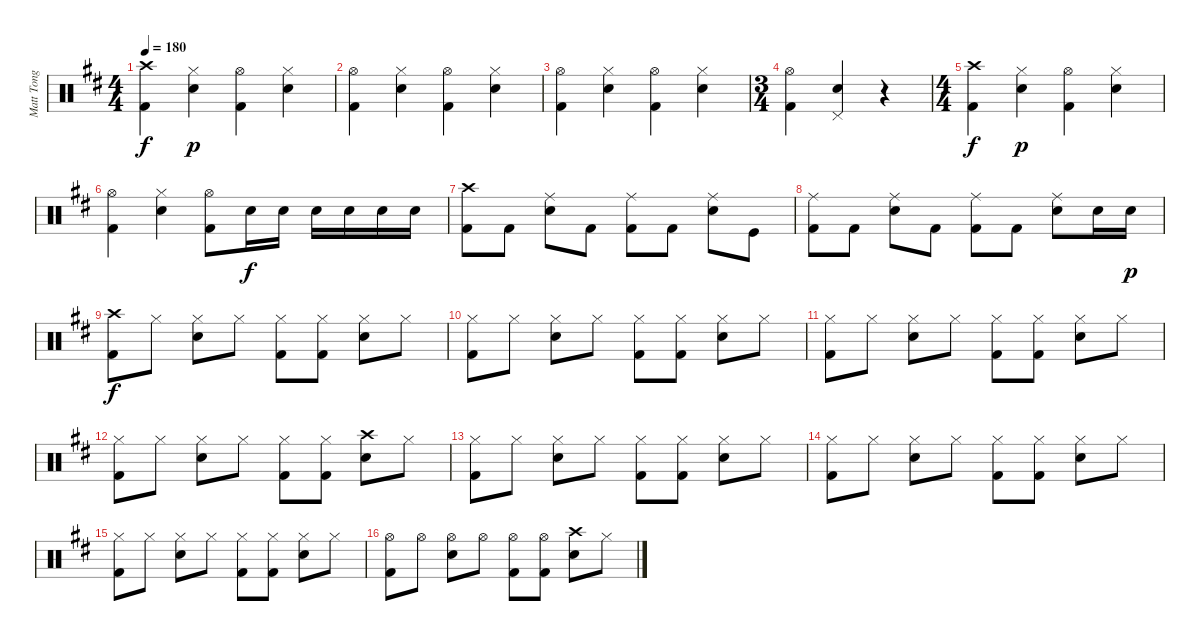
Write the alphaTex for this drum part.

\track ("Matt Tong" "Matt Tong") {instrument percussion}
\staff {score}
\articulation defaults
\ts (4 4)
\tempo 180
\clef neutral
\ks d
("Crash high (hit)" "Kick (hit) 2").4{dy f} ("Hi-Hat (closed)" "Electric Snare (hit)").4{dy p} ("Hi-Hat (open)" "Kick (hit) 2").4 ("Hi-Hat (closed)" "Electric Snare (hit)").4 |
("Hi-Hat (open)" "Kick (hit) 2").4 ("Hi-Hat (closed)" "Electric Snare (hit)").4 ("Hi-Hat (open)" "Kick (hit) 2").4 ("Hi-Hat (closed)" "Electric Snare (hit)").4 |
("Hi-Hat (open)" "Kick (hit) 2").4 ("Hi-Hat (closed)" "Electric Snare (hit)").4 ("Hi-Hat (open)" "Kick (hit) 2").4 ("Hi-Hat (closed)" "Electric Snare (hit)").4 |
\ts (3 4)
("Hi-Hat (open)" "Kick (hit) 2").4 ("Pedal Hi-Hat (hit)" "Electric Snare (hit)").4 r.4 |
\ts (4 4)
("Crash high (hit)" "Kick (hit) 2").4{dy f} ("Hi-Hat (closed)" "Electric Snare (hit)").4{dy p} ("Hi-Hat (open)" "Kick (hit) 2").4 ("Hi-Hat (closed)" "Electric Snare (hit)").4 |
("Hi-Hat (open)" "Kick (hit) 2").4 ("Hi-Hat (closed)" "Electric Snare (hit)").4 ("Hi-Hat (open)" "Kick (hit) 2").8 "Electric Snare (hit)".16{dy f} "Electric Snare (hit)".16 "Electric Snare (hit)".16 "Electric Snare (hit)".16 "Electric Snare (hit)".16 "Electric Snare (hit)".16 |
("Crash high (hit)" "Kick (hit) 2").8 "Kick (hit) 2".8 ("Ride (middle)" "Electric Snare (hit)").8 "Kick (hit) 2".8 ("Ride (middle)" "Kick (hit) 2").8 "Kick (hit) 2".8 ("Ride (middle)" "Electric Snare (hit)").8 "Kick (hit)".8 |
("Ride (middle)" "Kick (hit) 2").8 "Kick (hit) 2".8 ("Ride (middle)" "Electric Snare (hit)").8 "Kick (hit) 2".8 ("Ride (middle)" "Kick (hit) 2").8 "Kick (hit) 2".8 ("Ride (middle)" "Electric Snare (hit)").8 "Electric Snare (hit)".16 "Electric Snare (hit)".16{dy p} |
("Crash high (hit)" "Kick (hit) 2").8{dy f} "Hi-Hat (closed)".8 ("Hi-Hat (closed)" "Electric Snare (hit)").8 "Hi-Hat (closed)".8 ("Hi-Hat (closed)" "Kick (hit) 2").8 ("Hi-Hat (closed)" "Kick (hit) 2").8 ("Hi-Hat (closed)" "Electric Snare (hit)").8 "Hi-Hat (closed)".8 |
("Hi-Hat (closed)" "Kick (hit) 2").8 "Hi-Hat (closed)".8 ("Hi-Hat (closed)" "Electric Snare (hit)").8 "Hi-Hat (closed)".8 ("Hi-Hat (closed)" "Kick (hit) 2").8 ("Hi-Hat (closed)" "Kick (hit) 2").8 ("Hi-Hat (closed)" "Electric Snare (hit)").8 "Hi-Hat (closed)".8 |
("Hi-Hat (closed)" "Kick (hit) 2").8 "Hi-Hat (closed)".8 ("Hi-Hat (closed)" "Electric Snare (hit)").8 "Hi-Hat (closed)".8 ("Hi-Hat (closed)" "Kick (hit) 2").8 ("Hi-Hat (closed)" "Kick (hit) 2").8 ("Hi-Hat (closed)" "Electric Snare (hit)").8 "Hi-Hat (closed)".8 |
("Hi-Hat (closed)" "Kick (hit) 2").8 "Hi-Hat (closed)".8 ("Hi-Hat (closed)" "Electric Snare (hit)").8 "Hi-Hat (closed)".8 ("Hi-Hat (closed)" "Kick (hit) 2").8 ("Hi-Hat (closed)" "Kick (hit) 2").8 ("Crash high (hit)" "Electric Snare (hit)").8 "Hi-Hat (closed)".8 |
("Hi-Hat (closed)" "Kick (hit) 2").8 "Hi-Hat (closed)".8 ("Hi-Hat (closed)" "Electric Snare (hit)").8 "Hi-Hat (closed)".8 ("Hi-Hat (closed)" "Kick (hit) 2").8 ("Hi-Hat (closed)" "Kick (hit) 2").8 ("Hi-Hat (closed)" "Electric Snare (hit)").8 "Hi-Hat (closed)".8 |
("Hi-Hat (closed)" "Kick (hit) 2").8 "Hi-Hat (closed)".8 ("Hi-Hat (closed)" "Electric Snare (hit)").8 "Hi-Hat (closed)".8 ("Hi-Hat (closed)" "Kick (hit) 2").8 ("Hi-Hat (closed)" "Kick (hit) 2").8 ("Hi-Hat (closed)" "Electric Snare (hit)").8 "Hi-Hat (closed)".8 |
("Hi-Hat (closed)" "Kick (hit) 2").8 "Hi-Hat (closed)".8 ("Hi-Hat (closed)" "Electric Snare (hit)").8 "Hi-Hat (closed)".8 ("Hi-Hat (closed)" "Kick (hit) 2").8 ("Hi-Hat (closed)" "Kick (hit) 2").8 ("Hi-Hat (closed)" "Electric Snare (hit)").8 "Hi-Hat (closed)".8 |
("Hi-Hat (open)" "Kick (hit) 2").8 "Hi-Hat (open)".8 ("Hi-Hat (open)" "Electric Snare (hit)").8 "Hi-Hat (open)".8 ("Hi-Hat (open)" "Kick (hit) 2").8 ("Hi-Hat (open)" "Kick (hit) 2").8 ("Crash high (hit)" "Electric Snare (hit)").8 "Hi-Hat (closed)".8
